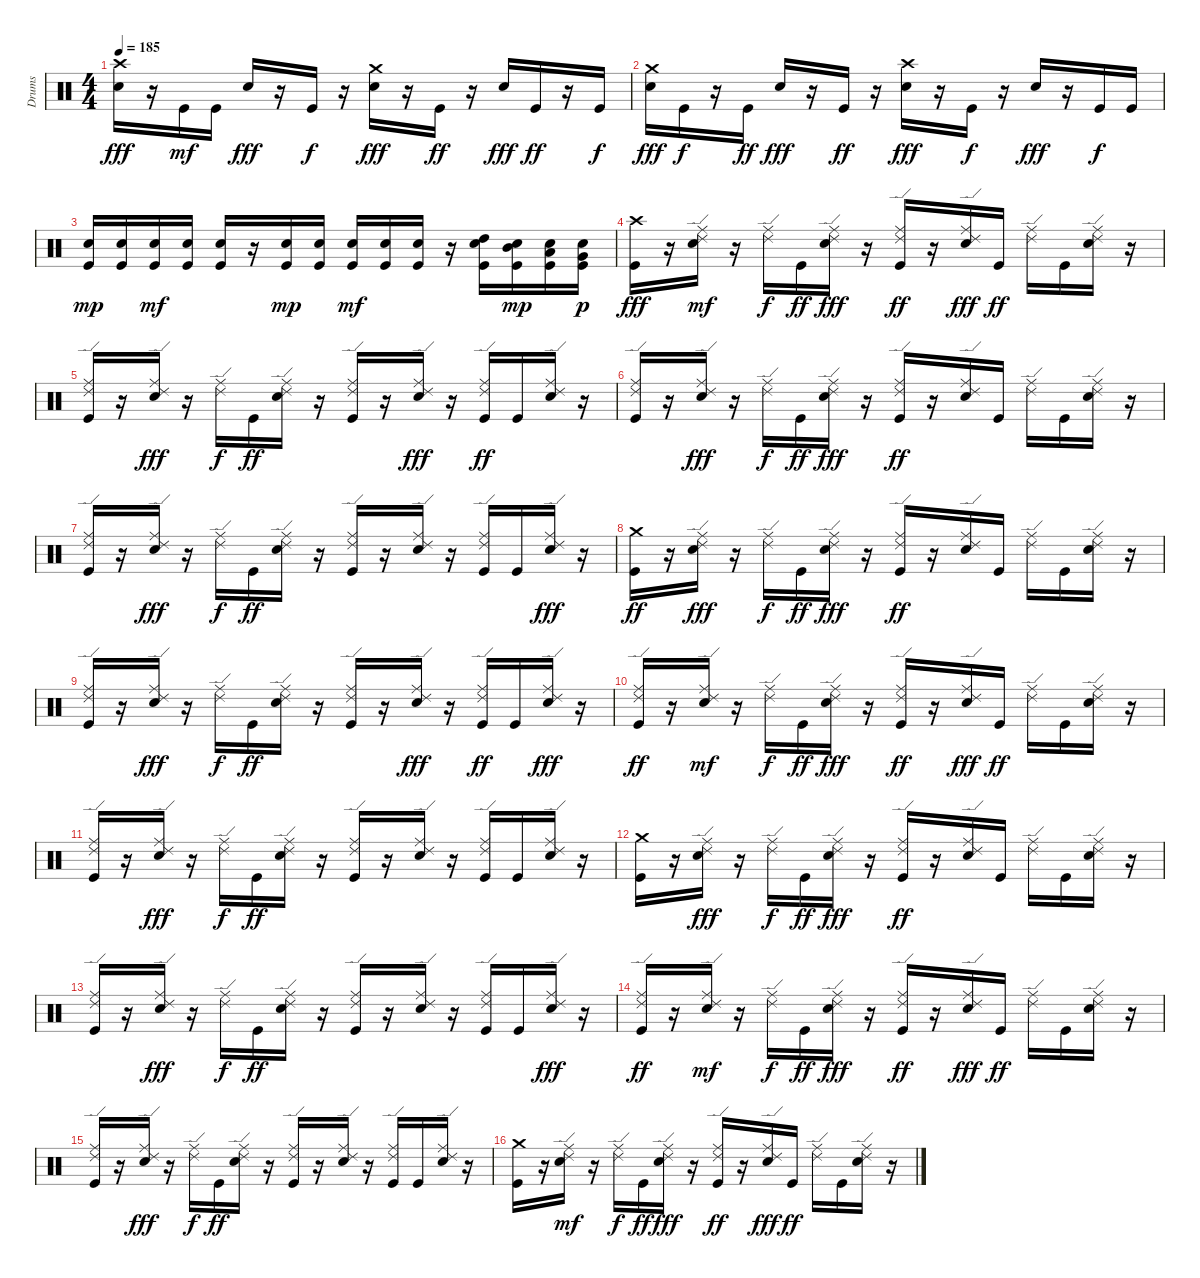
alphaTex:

\track ("Drums" "Drums") {instrument percussion}
\staff {score}
\articulation defaults
\ts (4 4)
\tempo 185
\clef neutral
\ks c
("Crash high (hit)" "Electric Snare (hit)").16{dy fff} r.16 "Kick (hit)".16{dy mf} "Kick (hit)".16 "Electric Snare (hit)".16{dy fff} r.16 "Kick (hit)".16{dy f} r.16 ("Crash medium (hit)" "Electric Snare (hit)").16{dy fff} r.16 "Kick (hit)".16{dy ff} r.16 "Electric Snare (hit)".16{dy fff} "Kick (hit)".16{dy ff} r.16 "Kick (hit)".16{dy f} |
("Crash medium (hit)" "Electric Snare (hit)").16{dy fff} "Kick (hit)".16{dy f} r.16 "Kick (hit)".16{dy ff} "Electric Snare (hit)".16{dy fff} r.16 "Kick (hit)".16{dy ff} r.16 ("Crash high (hit)" "Electric Snare (hit)").16{dy fff} r.16 "Kick (hit)".16{dy f} r.16 "Electric Snare (hit)".16{dy fff} r.16 "Kick (hit)".16{dy f} "Kick (hit)".16 |
("Electric Snare (hit)" "Kick (hit)").16{dy mp} ("Electric Snare (hit)" "Kick (hit)").16 ("Electric Snare (hit)" "Kick (hit)").16{dy mf} ("Electric Snare (hit)" "Kick (hit)").16 ("Electric Snare (hit)" "Kick (hit)").16 r.16 ("Electric Snare (hit)" "Kick (hit)").16{dy mp} ("Electric Snare (hit)" "Kick (hit)").16 ("Electric Snare (hit)" "Kick (hit)").16{dy mf} ("Electric Snare (hit)" "Kick (hit)").16 ("Electric Snare (hit)" "Kick (hit)").16 r.16 ("Kick (hit)" "Electric Snare (hit)" "High Tom (hit)").16 ("Electric Snare (hit)" "Kick (hit)" "Mid Tom (hit)").16{dy mp} ("Electric Snare (hit)" "Low Tom (hit)" "Kick (hit)").16 ("Electric Snare (hit)" "Kick (hit)" "Very Low Tom (hit)").16{dy p} |
("Kick (hit)" "Crash high (hit)").16{dy fff} r.16 ("Electric Snare (hit)" "Ride (middle)" "Ride (edge) 2").16{dy mf} r.16 ("Ride (edge) 2" "Ride (middle)").16{dy f} "Kick (hit)".16{dy ff} ("Electric Snare (hit)" "Ride (edge) 2" "Ride (middle)").16{dy fff} r.16 ("Kick (hit)" "Ride (edge) 2" "Ride (middle)").16{dy ff} r.16 ("Ride (middle)" "Ride (edge) 2" "Electric Snare (hit)").16{dy fff} "Kick (hit)".16{dy ff} ("Ride (edge) 2" "Ride (middle)").16 "Kick (hit)".16 ("Ride (middle)" "Electric Snare (hit)" "Ride (edge) 2").16 r.16 |
("Ride (edge) 2" "Ride (middle)" "Kick (hit)").16 r.16 ("Electric Snare (hit)" "Ride (middle)" "Ride (edge) 2").16{dy fff} r.16 ("Ride (middle)" "Ride (edge) 2").16{dy f} "Kick (hit)".16{dy ff} ("Ride (edge) 2" "Electric Snare (hit)" "Ride (middle)").16 r.16 ("Ride (middle)" "Kick (hit)" "Ride (edge) 2").16 r.16 ("Ride (middle)" "Ride (edge) 2" "Electric Snare (hit)").16{dy fff} r.16 ("Kick (hit)" "Ride (edge) 2" "Ride (middle)").16{dy ff} "Kick (hit)".16 ("Electric Snare (hit)" "Ride (edge) 2" "Ride (middle)").16 r.16 |
("Ride (middle)" "Ride (edge) 2" "Kick (hit)").16 r.16 ("Ride (edge) 2" "Ride (middle)" "Electric Snare (hit)").16{dy fff} r.16 ("Ride (middle)" "Ride (edge) 2").16{dy f} "Kick (hit)".16{dy ff} ("Ride (middle)" "Ride (edge) 2" "Electric Snare (hit)").16{dy fff} r.16 ("Kick (hit)" "Ride (edge) 2" "Ride (middle)").16{dy ff} r.16 ("Electric Snare (hit)" "Ride (edge) 2" "Ride (middle)").16 "Kick (hit)".16 ("Ride (middle)" "Ride (edge) 2").16 "Kick (hit)".16 ("Ride (middle)" "Electric Snare (hit)" "Ride (edge) 2").16 r.16 |
("Kick (hit)" "Ride (middle)" "Ride (edge) 2").16 r.16 ("Ride (edge) 2" "Ride (middle)" "Electric Snare (hit)").16{dy fff} r.16 ("Ride (middle)" "Ride (edge) 2").16{dy f} "Kick (hit)".16{dy ff} ("Ride (middle)" "Electric Snare (hit)" "Ride (edge) 2").16 r.16 ("Ride (edge) 2" "Kick (hit)" "Ride (middle)").16 r.16 ("Electric Snare (hit)" "Ride (edge) 2" "Ride (middle)").16 r.16 ("Kick (hit)" "Ride (edge) 2" "Ride (middle)").16 "Kick (hit)".16 ("Ride (middle)" "Ride (edge) 2" "Electric Snare (hit)").16{dy fff} r.16 |
("Crash medium (hit)" "Kick (hit)").16{dy ff} r.16 ("Ride (edge) 2" "Ride (middle)" "Electric Snare (hit)").16{dy fff} r.16 ("Ride (edge) 2" "Ride (middle)").16{dy f} "Kick (hit)".16{dy ff} ("Electric Snare (hit)" "Ride (edge) 2" "Ride (middle)").16{dy fff} r.16 ("Ride (middle)" "Ride (edge) 2" "Kick (hit)").16{dy ff} r.16 ("Electric Snare (hit)" "Ride (edge) 2" "Ride (middle)").16 "Kick (hit)".16 ("Ride (edge) 2" "Ride (middle)").16 "Kick (hit)".16 ("Ride (edge) 2" "Electric Snare (hit)" "Ride (middle)").16 r.16 |
("Kick (hit)" "Ride (middle)" "Ride (edge) 2").16 r.16 ("Electric Snare (hit)" "Ride (middle)" "Ride (edge) 2").16{dy fff} r.16 ("Ride (edge) 2" "Ride (middle)").16{dy f} "Kick (hit)".16{dy ff} ("Ride (middle)" "Electric Snare (hit)" "Ride (edge) 2").16 r.16 ("Ride (middle)" "Kick (hit)" "Ride (edge) 2").16 r.16 ("Ride (middle)" "Ride (edge) 2" "Electric Snare (hit)").16{dy fff} r.16 ("Ride (middle)" "Ride (edge) 2" "Kick (hit)").16{dy ff} "Kick (hit)".16 ("Ride (middle)" "Ride (edge) 2" "Electric Snare (hit)").16{dy fff} r.16 |
("Ride (middle)" "Ride (edge) 2" "Kick (hit)").16{dy ff} r.16 ("Electric Snare (hit)" "Ride (middle)" "Ride (edge) 2").16{dy mf} r.16 ("Ride (edge) 2" "Ride (middle)").16{dy f} "Kick (hit)".16{dy ff} ("Ride (middle)" "Ride (edge) 2" "Electric Snare (hit)").16{dy fff} r.16 ("Kick (hit)" "Ride (edge) 2" "Ride (middle)").16{dy ff} r.16 ("Ride (middle)" "Ride (edge) 2" "Electric Snare (hit)").16{dy fff} "Kick (hit)".16{dy ff} ("Ride (middle)" "Ride (edge) 2").16 "Kick (hit)".16 ("Ride (middle)" "Electric Snare (hit)" "Ride (edge) 2").16 r.16 |
("Ride (edge) 2" "Ride (middle)" "Kick (hit)").16 r.16 ("Electric Snare (hit)" "Ride (middle)" "Ride (edge) 2").16{dy fff} r.16 ("Ride (middle)" "Ride (edge) 2").16{dy f} "Kick (hit)".16{dy ff} ("Ride (edge) 2" "Electric Snare (hit)" "Ride (middle)").16 r.16 ("Ride (middle)" "Kick (hit)" "Ride (edge) 2").16 r.16 ("Electric Snare (hit)" "Ride (edge) 2" "Ride (middle)").16 r.16 ("Kick (hit)" "Ride (edge) 2" "Ride (middle)").16 "Kick (hit)".16 ("Electric Snare (hit)" "Ride (edge) 2" "Ride (middle)").16 r.16 |
("Crash medium (hit)" "Kick (hit)").16 r.16 ("Ride (edge) 2" "Ride (middle)" "Electric Snare (hit)").16{dy fff} r.16 ("Ride (middle)" "Ride (edge) 2").16{dy f} "Kick (hit)".16{dy ff} ("Ride (middle)" "Ride (edge) 2" "Electric Snare (hit)").16{dy fff} r.16 ("Ride (middle)" "Ride (edge) 2" "Kick (hit)").16{dy ff} r.16 ("Electric Snare (hit)" "Ride (edge) 2" "Ride (middle)").16 "Kick (hit)".16 ("Ride (middle)" "Ride (edge) 2").16 "Kick (hit)".16 ("Ride (edge) 2" "Electric Snare (hit)" "Ride (middle)").16 r.16 |
("Kick (hit)" "Ride (middle)" "Ride (edge) 2").16 r.16 ("Ride (edge) 2" "Ride (middle)" "Electric Snare (hit)").16{dy fff} r.16 ("Ride (middle)" "Ride (edge) 2").16{dy f} "Kick (hit)".16{dy ff} ("Ride (middle)" "Electric Snare (hit)" "Ride (edge) 2").16 r.16 ("Ride (edge) 2" "Kick (hit)" "Ride (middle)").16 r.16 ("Electric Snare (hit)" "Ride (edge) 2" "Ride (middle)").16 r.16 ("Ride (middle)" "Ride (edge) 2" "Kick (hit)").16 "Kick (hit)".16 ("Ride (middle)" "Ride (edge) 2" "Electric Snare (hit)").16{dy fff} r.16 |
("Ride (middle)" "Ride (edge) 2" "Kick (hit)").16{dy ff} r.16 ("Electric Snare (hit)" "Ride (middle)" "Ride (edge) 2").16{dy mf} r.16 ("Ride (edge) 2" "Ride (middle)").16{dy f} "Kick (hit)".16{dy ff} ("Ride (middle)" "Ride (edge) 2" "Electric Snare (hit)").16{dy fff} r.16 ("Kick (hit)" "Ride (edge) 2" "Ride (middle)").16{dy ff} r.16 ("Ride (middle)" "Ride (edge) 2" "Electric Snare (hit)").16{dy fff} "Kick (hit)".16{dy ff} ("Ride (middle)" "Ride (edge) 2").16 "Kick (hit)".16 ("Ride (middle)" "Electric Snare (hit)" "Ride (edge) 2").16 r.16 |
("Ride (edge) 2" "Ride (middle)" "Kick (hit)").16 r.16 ("Electric Snare (hit)" "Ride (middle)" "Ride (edge) 2").16{dy fff} r.16 ("Ride (middle)" "Ride (edge) 2").16{dy f} "Kick (hit)".16{dy ff} ("Ride (edge) 2" "Electric Snare (hit)" "Ride (middle)").16 r.16 ("Ride (middle)" "Kick (hit)" "Ride (edge) 2").16 r.16 ("Electric Snare (hit)" "Ride (edge) 2" "Ride (middle)").16 r.16 ("Kick (hit)" "Ride (edge) 2" "Ride (middle)").16 "Kick (hit)".16 ("Electric Snare (hit)" "Ride (edge) 2" "Ride (middle)").16 r.16 |
("Kick (hit)" "Crash medium (hit)").16 r.16 ("Electric Snare (hit)" "Ride (middle)" "Ride (edge) 2").16{dy mf} r.16 ("Ride (edge) 2" "Ride (middle)").16{dy f} "Kick (hit)".16{dy ff} ("Ride (middle)" "Ride (edge) 2" "Electric Snare (hit)").16{dy fff} r.16 ("Kick (hit)" "Ride (edge) 2" "Ride (middle)").16{dy ff} r.16 ("Ride (middle)" "Ride (edge) 2" "Electric Snare (hit)").16{dy fff} "Kick (hit)".16{dy ff} ("Ride (middle)" "Ride (edge) 2").16 "Kick (hit)".16 ("Ride (middle)" "Electric Snare (hit)" "Ride (edge) 2").16 r.16
